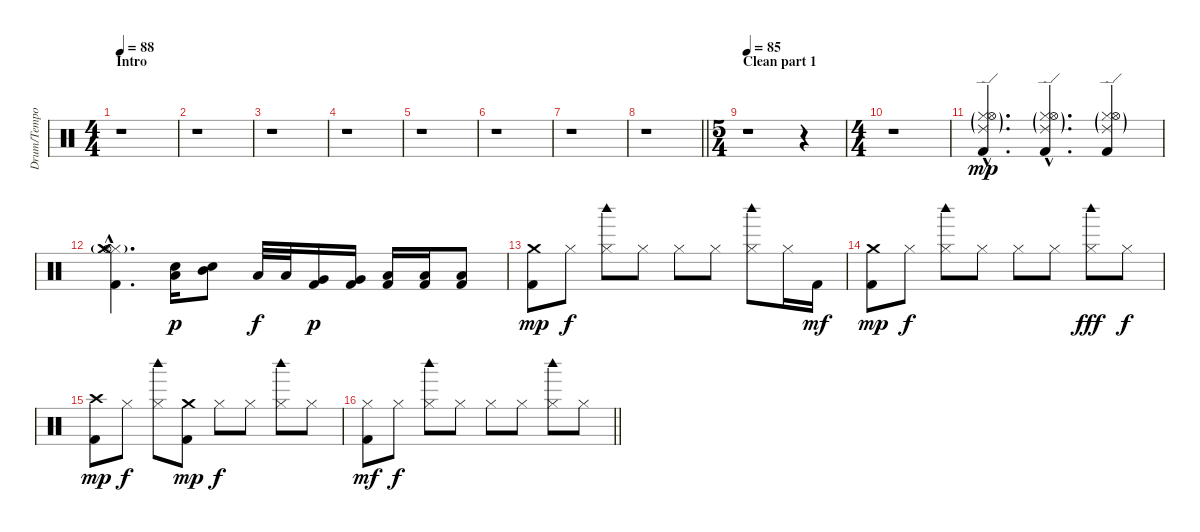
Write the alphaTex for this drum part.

\track ("Drum/Tempo" "Drum/Tempo") {instrument percussion}
\staff {score}
\articulation defaults
\ts (4 4)
\section ("" "Intro")
\tempo 88
\clef neutral
\ks c
r.1{dy mp} |
r.1 |
r.1 |
r.1 |
r.1 |
r.1 |
r.1 |
\barLineRight lightlight
r.1 |
\ts (5 4)
\section ("" "Clean part 1")
\tempo 85
r.1 r.4 |
\ts (4 4)
r.1 |
("Kick (hit) 2"{hac} "Hi-Hat (closed)"{g hac} "Hi-Hat (open)"{g hac} "Ride (edge) 2"{g hac}).4{d} ("Kick (hit) 2"{hac} "Hi-Hat (closed)"{g hac} "Hi-Hat (open)"{g hac} "Ride (edge) 2"{g hac}).4{d} ("Kick (hit) 2" "Hi-Hat (closed)"{g} "Hi-Hat (open)"{g} "Ride (edge) 2"{g}).4 |
("Kick (hit) 2"{hac} "Hi-Hat (closed)"{g hac} "Hi-Hat (open)"{g hac} "Crash medium (hit)"{g hac}).4{d} ("Electric Snare (hit)" "Low Tom (hit)").16{dy p} ("Electric Snare (hit)" "Mid Tom (hit)").8 "Low Tom (hit)".32{dy f} "Low Tom (hit)".32 ("Kick (hit) 2" "Very Low Tom (hit)").16{dy p} ("Kick (hit) 2" "Very Low Tom (hit)").16 ("Kick (hit) 2" "Low Floor Tom (hit)").16 ("Kick (hit) 2" "Low Floor Tom (hit)").16 ("Kick (hit) 2" "Low Floor Tom (hit)").8 |
("Kick (hit) 2" "Crash medium (hit)").8{dy mp} "Hi-Hat (closed)".8{dy f} ("Woodblock high (hit)" "Hi-Hat (closed)").8 "Hi-Hat (closed)".8 "Hi-Hat (closed)".8 "Hi-Hat (closed)".8 ("Woodblock high (hit)" "Hi-Hat (closed)").8 "Hi-Hat (closed)".16 "Kick (hit) 2".16{dy mf} |
("Kick (hit) 2" "Crash medium (hit)").8{dy mp} "Hi-Hat (closed)".8{dy f} ("Woodblock high (hit)" "Hi-Hat (closed)").8 "Hi-Hat (closed)".8 "Hi-Hat (closed)".8 "Hi-Hat (closed)".8 ("Woodblock high (hit)" "Hi-Hat (closed)").8{dy fff} "Hi-Hat (closed)".8{dy f} |
("Kick (hit) 2" "Crash high (hit)").8{dy mp} "Hi-Hat (closed)".8{dy f} ("Woodblock high (hit)" "Hi-Hat (closed)").8 ("Kick (hit) 2" "Crash medium (hit)").8{dy mp} "Hi-Hat (closed)".8{dy f} "Hi-Hat (closed)".8 ("Woodblock high (hit)" "Hi-Hat (closed)").8 "Hi-Hat (closed)".8 |
\barLineRight lightlight
("Kick (hit) 2" "Hi-Hat (closed)").8{dy mf} "Hi-Hat (closed)".8{dy f} ("Woodblock high (hit)" "Hi-Hat (closed)").8 "Hi-Hat (closed)".8 "Hi-Hat (closed)".8 "Hi-Hat (closed)".8 ("Woodblock high (hit)" "Hi-Hat (closed)").8 "Hi-Hat (closed)".8
